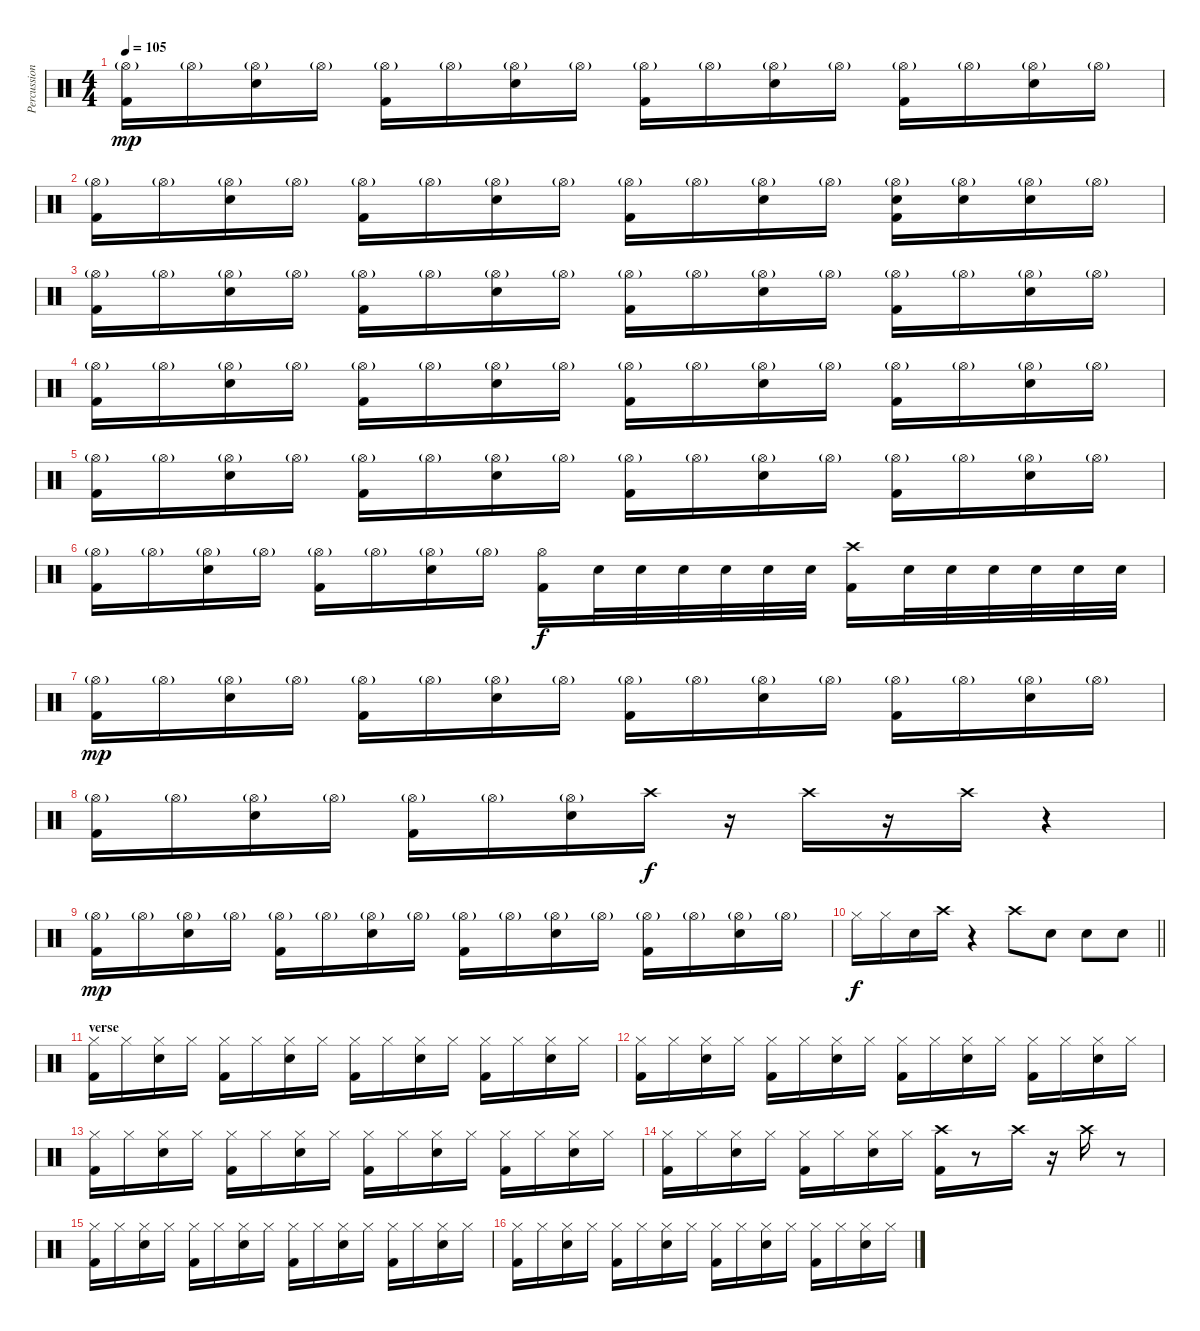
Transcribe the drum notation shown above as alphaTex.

\track ("Percussion" "Percussion") {instrument percussion}
\staff {score}
\articulation defaults
\ts (4 4)
\tempo 105
\clef neutral
\ks c
("Hi-Hat (open)"{g} "Kick (hit) 2").16{dy mp} "Hi-Hat (open)"{g}.16 ("Hi-Hat (open)"{g} "Electric Snare (hit)").16 "Hi-Hat (open)"{g}.16 ("Hi-Hat (open)"{g} "Kick (hit) 2").16 "Hi-Hat (open)"{g}.16 ("Hi-Hat (open)"{g} "Electric Snare (hit)").16 "Hi-Hat (open)"{g}.16 ("Hi-Hat (open)"{g} "Kick (hit) 2").16 "Hi-Hat (open)"{g}.16 ("Hi-Hat (open)"{g} "Electric Snare (hit)").16 "Hi-Hat (open)"{g}.16 ("Hi-Hat (open)"{g} "Kick (hit) 2").16 "Hi-Hat (open)"{g}.16 ("Hi-Hat (open)"{g} "Electric Snare (hit)").16 "Hi-Hat (open)"{g}.16 |
("Hi-Hat (open)"{g} "Kick (hit) 2").16 "Hi-Hat (open)"{g}.16 ("Hi-Hat (open)"{g} "Electric Snare (hit)").16 "Hi-Hat (open)"{g}.16 ("Hi-Hat (open)"{g} "Kick (hit) 2").16 "Hi-Hat (open)"{g}.16 ("Hi-Hat (open)"{g} "Electric Snare (hit)").16 "Hi-Hat (open)"{g}.16 ("Hi-Hat (open)"{g} "Kick (hit) 2").16 "Hi-Hat (open)"{g}.16 ("Hi-Hat (open)"{g} "Electric Snare (hit)").16 "Hi-Hat (open)"{g}.16 ("Hi-Hat (open)"{g} "Electric Snare (hit)" "Kick (hit) 2").16 ("Hi-Hat (open)"{g} "Snare (hit)").16 ("Hi-Hat (open)"{g} "Electric Snare (hit)").16 "Hi-Hat (open)"{g}.16 |
("Hi-Hat (open)"{g} "Kick (hit) 2").16 "Hi-Hat (open)"{g}.16 ("Hi-Hat (open)"{g} "Electric Snare (hit)").16 "Hi-Hat (open)"{g}.16 ("Hi-Hat (open)"{g} "Kick (hit) 2").16 "Hi-Hat (open)"{g}.16 ("Hi-Hat (open)"{g} "Electric Snare (hit)").16 "Hi-Hat (open)"{g}.16 ("Hi-Hat (open)"{g} "Kick (hit) 2").16 "Hi-Hat (open)"{g}.16 ("Hi-Hat (open)"{g} "Electric Snare (hit)").16 "Hi-Hat (open)"{g}.16 ("Hi-Hat (open)"{g} "Kick (hit) 2").16 "Hi-Hat (open)"{g}.16 ("Hi-Hat (open)"{g} "Electric Snare (hit)").16 "Hi-Hat (open)"{g}.16 |
("Hi-Hat (open)"{g} "Kick (hit) 2").16 "Hi-Hat (open)"{g}.16 ("Hi-Hat (open)"{g} "Electric Snare (hit)").16 "Hi-Hat (open)"{g}.16 ("Hi-Hat (open)"{g} "Kick (hit) 2").16 "Hi-Hat (open)"{g}.16 ("Hi-Hat (open)"{g} "Electric Snare (hit)").16 "Hi-Hat (open)"{g}.16 ("Hi-Hat (open)"{g} "Kick (hit) 2").16 "Hi-Hat (open)"{g}.16 ("Hi-Hat (open)"{g} "Electric Snare (hit)").16 "Hi-Hat (open)"{g}.16 ("Hi-Hat (open)"{g} "Kick (hit) 2").16 "Hi-Hat (open)"{g}.16 ("Hi-Hat (open)"{g} "Electric Snare (hit)").16 "Hi-Hat (open)"{g}.16 |
("Hi-Hat (open)"{g} "Kick (hit) 2").16 "Hi-Hat (open)"{g}.16 ("Hi-Hat (open)"{g} "Electric Snare (hit)").16 "Hi-Hat (open)"{g}.16 ("Hi-Hat (open)"{g} "Kick (hit) 2").16 "Hi-Hat (open)"{g}.16 ("Hi-Hat (open)"{g} "Electric Snare (hit)").16 "Hi-Hat (open)"{g}.16 ("Hi-Hat (open)"{g} "Kick (hit) 2").16 "Hi-Hat (open)"{g}.16 ("Hi-Hat (open)"{g} "Electric Snare (hit)").16 "Hi-Hat (open)"{g}.16 ("Hi-Hat (open)"{g} "Kick (hit) 2").16 "Hi-Hat (open)"{g}.16 ("Hi-Hat (open)"{g} "Electric Snare (hit)").16 "Hi-Hat (open)"{g}.16 |
("Hi-Hat (open)"{g} "Kick (hit) 2").16 "Hi-Hat (open)"{g}.16 ("Hi-Hat (open)"{g} "Electric Snare (hit)").16 "Hi-Hat (open)"{g}.16 ("Hi-Hat (open)"{g} "Kick (hit) 2").16 "Hi-Hat (open)"{g}.16 ("Hi-Hat (open)"{g} "Electric Snare (hit)").16 "Hi-Hat (open)"{g}.16 ("Hi-Hat (open)" "Kick (hit) 2").16{dy f} "Electric Snare (hit)".32 "Electric Snare (hit)".32 "Electric Snare (hit)".32 "Electric Snare (hit)".32 "Electric Snare (hit)".32 "Electric Snare (hit)".32 ("Crash high (hit)" "Kick (hit) 2").16 "Electric Snare (hit)".32 "Electric Snare (hit)".32 "Electric Snare (hit)".32 "Electric Snare (hit)".32 "Electric Snare (hit)".32 "Electric Snare (hit)".32 |
("Hi-Hat (open)"{g} "Kick (hit) 2").16{dy mp} "Hi-Hat (open)"{g}.16 ("Hi-Hat (open)"{g} "Electric Snare (hit)").16 "Hi-Hat (open)"{g}.16 ("Hi-Hat (open)"{g} "Kick (hit) 2").16 "Hi-Hat (open)"{g}.16 ("Hi-Hat (open)"{g} "Electric Snare (hit)").16 "Hi-Hat (open)"{g}.16 ("Hi-Hat (open)"{g} "Kick (hit) 2").16 "Hi-Hat (open)"{g}.16 ("Hi-Hat (open)"{g} "Electric Snare (hit)").16 "Hi-Hat (open)"{g}.16 ("Hi-Hat (open)"{g} "Kick (hit) 2").16 "Hi-Hat (open)"{g}.16 ("Hi-Hat (open)"{g} "Electric Snare (hit)").16 "Hi-Hat (open)"{g}.16 |
("Hi-Hat (open)"{g} "Kick (hit) 2").16 "Hi-Hat (open)"{g}.16 ("Hi-Hat (open)"{g} "Electric Snare (hit)").16 "Hi-Hat (open)"{g}.16 ("Hi-Hat (open)"{g} "Kick (hit) 2").16 "Hi-Hat (open)"{g}.16 ("Hi-Hat (open)"{g} "Electric Snare (hit)").16 "Crash high (hit)".16{dy f} r.16 "Crash high (hit)".16 r.16 "Crash high (hit)".16 r.4 |
("Hi-Hat (open)"{g} "Kick (hit) 2").16{dy mp} "Hi-Hat (open)"{g}.16 ("Hi-Hat (open)"{g} "Electric Snare (hit)").16 "Hi-Hat (open)"{g}.16 ("Hi-Hat (open)"{g} "Kick (hit) 2").16 "Hi-Hat (open)"{g}.16 ("Hi-Hat (open)"{g} "Electric Snare (hit)").16 "Hi-Hat (open)"{g}.16 ("Hi-Hat (open)"{g} "Kick (hit) 2").16 "Hi-Hat (open)"{g}.16 ("Hi-Hat (open)"{g} "Electric Snare (hit)").16 "Hi-Hat (open)"{g}.16 ("Hi-Hat (open)"{g} "Kick (hit) 2").16 "Hi-Hat (open)"{g}.16 ("Hi-Hat (open)"{g} "Electric Snare (hit)").16 "Hi-Hat (open)"{g}.16 |
\barLineRight lightlight "Hi-Hat (closed)".16{dy f} "Hi-Hat (closed)".16 "Electric Snare (hit)".16 "Crash high (hit)".16
r.4 "Crash high (hit)".8 "Electric Snare (hit)".8 "Electric Snare (hit)".8 "Electric Snare (hit)".8 |
\section ("" "verse")
("Hi-Hat (closed)" "Kick (hit) 2").16 "Hi-Hat (closed)".16 ("Hi-Hat (closed)" "Electric Snare (hit)").16 "Hi-Hat (closed)".16 ("Hi-Hat (closed)" "Kick (hit) 2").16 "Hi-Hat (closed)".16 ("Hi-Hat (closed)" "Electric Snare (hit)").16 "Hi-Hat (closed)".16 ("Hi-Hat (closed)" "Kick (hit) 2").16 "Hi-Hat (closed)".16 ("Hi-Hat (closed)" "Electric Snare (hit)").16 "Hi-Hat (closed)".16 ("Hi-Hat (closed)" "Kick (hit) 2").16 "Hi-Hat (closed)".16 ("Hi-Hat (closed)" "Electric Snare (hit)").16 "Hi-Hat (closed)".16 |
("Hi-Hat (closed)" "Kick (hit) 2").16 "Hi-Hat (closed)".16 ("Hi-Hat (closed)" "Electric Snare (hit)").16 "Hi-Hat (closed)".16 ("Hi-Hat (closed)" "Kick (hit) 2").16 "Hi-Hat (closed)".16 ("Hi-Hat (closed)" "Electric Snare (hit)").16 "Hi-Hat (closed)".16 ("Hi-Hat (closed)" "Kick (hit) 2").16 "Hi-Hat (closed)".16 ("Hi-Hat (closed)" "Electric Snare (hit)").16 "Hi-Hat (closed)".16 ("Hi-Hat (closed)" "Kick (hit) 2").16 "Hi-Hat (closed)".16 ("Hi-Hat (closed)" "Electric Snare (hit)").16 "Hi-Hat (closed)".16 |
("Hi-Hat (closed)" "Kick (hit) 2").16 "Hi-Hat (closed)".16 ("Hi-Hat (closed)" "Electric Snare (hit)").16 "Hi-Hat (closed)".16 ("Hi-Hat (closed)" "Kick (hit) 2").16 "Hi-Hat (closed)".16 ("Hi-Hat (closed)" "Electric Snare (hit)").16 "Hi-Hat (closed)".16 ("Hi-Hat (closed)" "Kick (hit) 2").16 "Hi-Hat (closed)".16 ("Hi-Hat (closed)" "Electric Snare (hit)").16 "Hi-Hat (closed)".16 ("Hi-Hat (closed)" "Kick (hit) 2").16 "Hi-Hat (closed)".16 ("Hi-Hat (closed)" "Electric Snare (hit)").16 "Hi-Hat (closed)".16 |
("Hi-Hat (closed)" "Kick (hit) 2").16 "Hi-Hat (closed)".16 ("Hi-Hat (closed)" "Electric Snare (hit)").16 "Hi-Hat (closed)".16 ("Hi-Hat (closed)" "Kick (hit) 2").16 "Hi-Hat (closed)".16 ("Hi-Hat (closed)" "Electric Snare (hit)").16 "Hi-Hat (closed)".16 ("Crash high (hit)" "Kick (hit) 2").16 r.8 "Crash high (hit)".16 r.16 "Crash high (hit)".16 r.8 |
("Hi-Hat (closed)" "Kick (hit) 2").16 "Hi-Hat (closed)".16 ("Hi-Hat (closed)" "Electric Snare (hit)").16 "Hi-Hat (closed)".16 ("Hi-Hat (closed)" "Kick (hit) 2").16 "Hi-Hat (closed)".16 ("Hi-Hat (closed)" "Electric Snare (hit)").16 "Hi-Hat (closed)".16 ("Hi-Hat (closed)" "Kick (hit) 2").16 "Hi-Hat (closed)".16 ("Hi-Hat (closed)" "Electric Snare (hit)").16 "Hi-Hat (closed)".16 ("Hi-Hat (closed)" "Kick (hit) 2").16 "Hi-Hat (closed)".16 ("Hi-Hat (closed)" "Electric Snare (hit)").16 "Hi-Hat (closed)".16 |
("Hi-Hat (closed)" "Kick (hit) 2").16 "Hi-Hat (closed)".16 ("Hi-Hat (closed)" "Electric Snare (hit)").16 "Hi-Hat (closed)".16 ("Hi-Hat (closed)" "Kick (hit) 2").16 "Hi-Hat (closed)".16 ("Hi-Hat (closed)" "Electric Snare (hit)").16 "Hi-Hat (closed)".16 ("Hi-Hat (closed)" "Kick (hit) 2").16 "Hi-Hat (closed)".16 ("Hi-Hat (closed)" "Electric Snare (hit)").16 "Hi-Hat (closed)".16 ("Hi-Hat (closed)" "Kick (hit) 2").16 "Hi-Hat (closed)".16 ("Hi-Hat (closed)" "Electric Snare (hit)").16 "Hi-Hat (closed)".16
